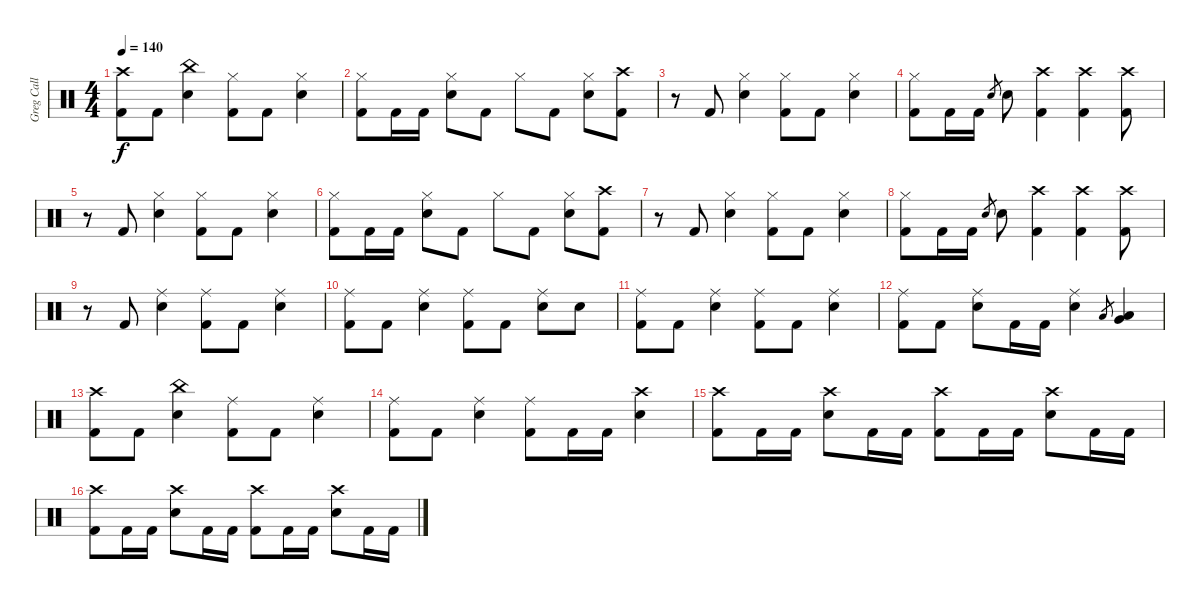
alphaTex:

\track ("Greg Call (Drums)" "Greg Call ") {instrument percussion}
\staff {score}
\articulation defaults
\ts (4 4)
\tempo 140
\clef neutral
\ks c
("Crash high (hit)" "Kick (hit) 2").8{dy f} "Kick (hit) 2".8 ("China (hit)" "Snare (hit) 2").4 ("Hi-Hat (closed)" "Kick (hit) 2").8 "Kick (hit) 2".8 ("Hi-Hat (closed)" "Snare (hit) 2").4 |
("Hi-Hat (closed)" "Kick (hit) 2").8 "Kick (hit) 2".16 "Kick (hit) 2".16 ("Hi-Hat (closed)" "Snare (hit) 2").8 "Kick (hit) 2".8 "Hi-Hat (closed)".8 "Kick (hit) 2".8 ("Hi-Hat (closed)" "Snare (hit) 2").8 ("Crash high (hit)" "Kick (hit) 2").8 |
r.8 "Kick (hit) 2".8 ("Hi-Hat (closed)" "Snare (hit) 2").4 ("Hi-Hat (closed)" "Kick (hit) 2").8 "Kick (hit) 2".8 ("Hi-Hat (closed)" "Snare (hit) 2").4 |
("Hi-Hat (closed)" "Kick (hit) 2").8 "Kick (hit) 2".16 "Kick (hit) 2".16 "Snare (hit) 2".8{gr} "Snare (hit) 2".8 ("Crash high (hit)" "Kick (hit) 2").4 ("Crash high (hit)" "Kick (hit) 2").4 ("Crash high (hit)" "Kick (hit) 2").8 |
r.8 "Kick (hit) 2".8 ("Hi-Hat (closed)" "Snare (hit) 2").4 ("Hi-Hat (closed)" "Kick (hit) 2").8 "Kick (hit) 2".8 ("Hi-Hat (closed)" "Snare (hit) 2").4 |
("Hi-Hat (closed)" "Kick (hit) 2").8 "Kick (hit) 2".16 "Kick (hit) 2".16 ("Hi-Hat (closed)" "Snare (hit) 2").8 "Kick (hit) 2".8 "Hi-Hat (closed)".8 "Kick (hit) 2".8 ("Hi-Hat (closed)" "Snare (hit) 2").8 ("Crash high (hit)" "Kick (hit) 2").8 |
r.8 "Kick (hit) 2".8 ("Hi-Hat (closed)" "Snare (hit) 2").4 ("Hi-Hat (closed)" "Kick (hit) 2").8 "Kick (hit) 2".8 ("Hi-Hat (closed)" "Snare (hit) 2").4 |
("Hi-Hat (closed)" "Kick (hit) 2").8 "Kick (hit) 2".16 "Kick (hit) 2".16 "Snare (hit) 2".8{gr} "Snare (hit) 2".8 ("Crash high (hit)" "Kick (hit) 2").4 ("Crash high (hit)" "Kick (hit) 2").4 ("Crash high (hit)" "Kick (hit) 2").8 |
r.8 "Kick (hit) 2".8 ("Ride (middle)" "Snare (hit) 2").4 ("Ride (middle)" "Kick (hit) 2").8 "Kick (hit) 2".8 ("Ride (middle)" "Snare (hit) 2").4 |
("Ride (middle)" "Kick (hit) 2").8 "Kick (hit) 2".8 ("Ride (middle)" "Snare (hit) 2").4 ("Ride (middle)" "Kick (hit) 2").8 "Kick (hit) 2".8 ("Ride (middle)" "Snare (hit) 2").8 "Snare (hit) 2".8 |
("Ride (middle)" "Kick (hit) 2").8 "Kick (hit) 2".8 ("Ride (middle)" "Snare (hit) 2").4 ("Ride (middle)" "Kick (hit) 2").8 "Kick (hit) 2".8 ("Ride (middle)" "Snare (hit) 2").4 |
("Ride (middle)" "Kick (hit) 2").8 "Kick (hit) 2".8 ("Ride (middle)" "Snare (hit) 2").8 "Kick (hit) 2".16 "Kick (hit) 2".16 ("Ride (middle)" "Snare (hit) 2").4 "Low Floor Tom (hit)".8{gr} ("Low Floor Tom (hit)" "Very Low Tom (hit)").4 |
("Crash high (hit)" "Kick (hit) 2").8 "Kick (hit) 2".8 ("China (hit)" "Snare (hit) 2").4 ("Ride (middle)" "Kick (hit) 2").8 "Kick (hit) 2".8 ("Ride (middle)" "Snare (hit) 2").4 |
("Ride (middle)" "Kick (hit) 2").8 "Kick (hit) 2".8 ("Ride (middle)" "Snare (hit) 2").4 ("Ride (middle)" "Kick (hit) 2").8 "Kick (hit) 2".16 "Kick (hit) 2".16 ("Crash high (hit)" "Snare (hit) 2").4 |
("Crash high (hit)" "Kick (hit) 2").8 "Kick (hit) 2".16 "Kick (hit) 2".16 ("Crash high (hit)" "Snare (hit) 2").8 "Kick (hit) 2".16 "Kick (hit) 2".16 ("Crash high (hit)" "Kick (hit) 2").8 "Kick (hit) 2".16 "Kick (hit) 2".16 ("Crash high (hit)" "Snare (hit) 2").8 "Kick (hit) 2".16 "Kick (hit) 2".16 |
("Crash high (hit)" "Kick (hit) 2").8 "Kick (hit) 2".16 "Kick (hit) 2".16 ("Crash high (hit)" "Snare (hit) 2").8 "Kick (hit) 2".16 "Kick (hit) 2".16 ("Crash high (hit)" "Kick (hit) 2").8 "Kick (hit) 2".16 "Kick (hit) 2".16 ("Crash high (hit)" "Snare (hit) 2").8 "Kick (hit) 2".16 "Kick (hit) 2".16
